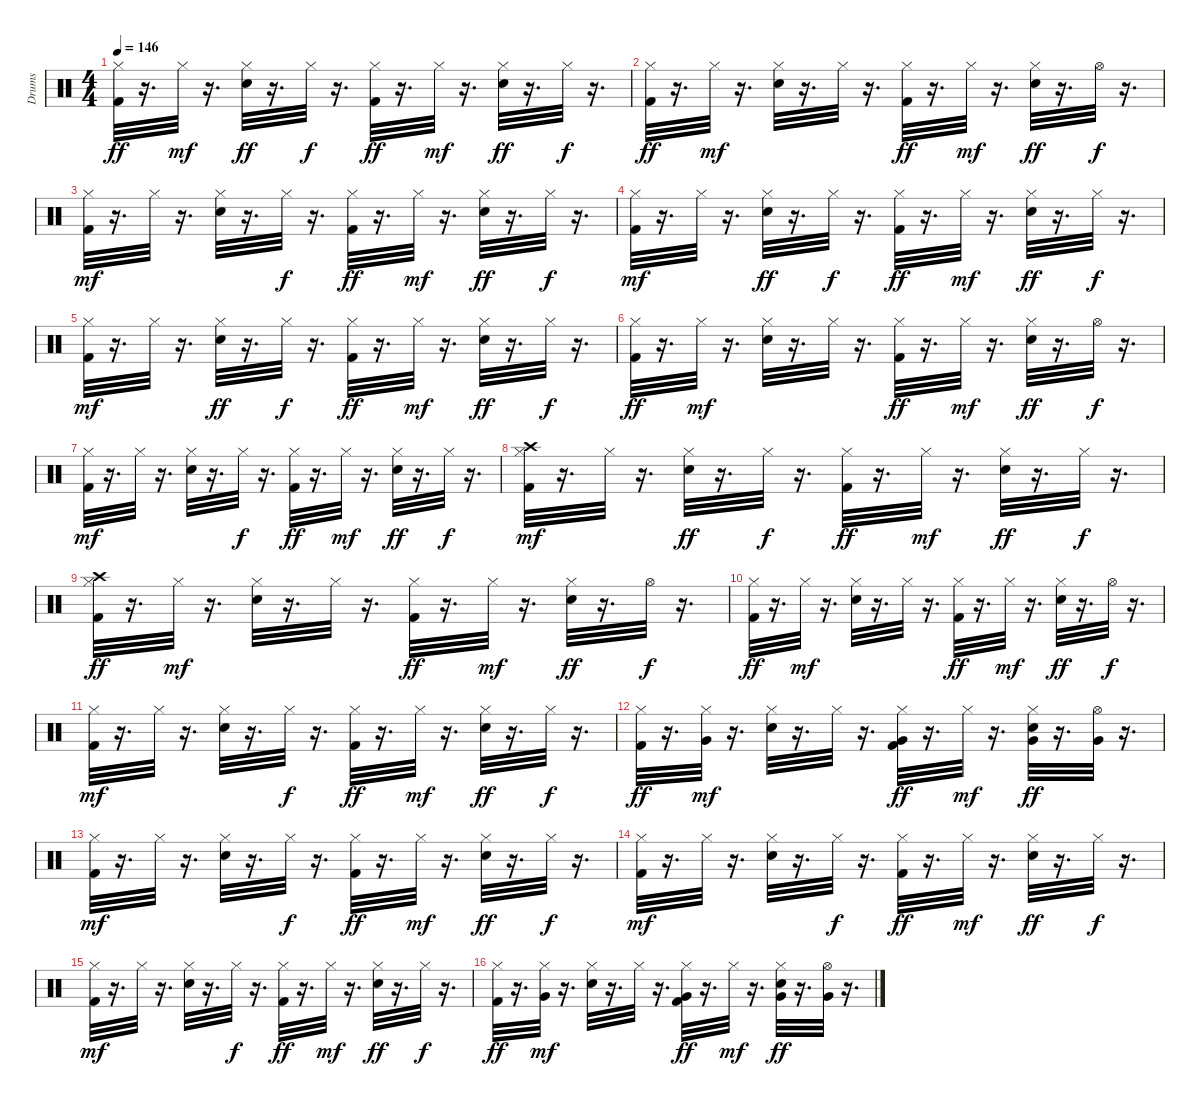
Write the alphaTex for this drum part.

\track ("Drums" "Drums") {instrument percussion}
\staff {score}
\articulation defaults
\ts (4 4)
\tempo 146
\clef neutral
\ks c
("Hi-Hat (closed)" "Kick (hit) 2").32{dy ff} r.16{d} "Hi-Hat (closed)".32{dy mf} r.16{d} ("Hi-Hat (closed)" "Snare (hit) 2").32{dy ff} r.16{d} "Hi-Hat (closed)".32{dy f} r.16{d} ("Kick (hit) 2" "Hi-Hat (closed)").32{dy ff} r.16{d} "Hi-Hat (closed)".32{dy mf} r.16{d} ("Snare (hit) 2" "Hi-Hat (closed)").32{dy ff} r.16{d} "Hi-Hat (closed)".32{dy f} r.16{d} |
("Kick (hit) 2" "Hi-Hat (closed)").32{dy ff} r.16{d} "Hi-Hat (closed)".32{dy mf} r.16{d} ("Snare (hit) 2" "Hi-Hat (closed)").32 r.16{d} "Hi-Hat (closed)".32 r.16{d} ("Kick (hit) 2" "Hi-Hat (closed)").32{dy ff} r.16{d} "Hi-Hat (closed)".32{dy mf} r.16{d} ("Hi-Hat (closed)" "Snare (hit) 2").32{dy ff} r.16{d} "Hi-Hat (open)".32{dy f} r.16{d} |
("Kick (hit) 2" "Hi-Hat (closed)").32{dy mf} r.16{d} "Hi-Hat (closed)".32 r.16{d} ("Snare (hit) 2" "Hi-Hat (closed)").32 r.16{d} "Hi-Hat (closed)".32{dy f} r.16{d} ("Kick (hit) 2" "Hi-Hat (closed)").32{dy ff} r.16{d} "Hi-Hat (closed)".32{dy mf} r.16{d} ("Snare (hit) 2" "Hi-Hat (closed)").32{dy ff} r.16{d} "Hi-Hat (closed)".32{dy f} r.16{d} |
("Kick (hit) 2" "Hi-Hat (closed)").32{dy mf} r.16{d} "Hi-Hat (closed)".32 r.16{d} ("Hi-Hat (closed)" "Snare (hit) 2").32{dy ff} r.16{d} "Hi-Hat (closed)".32{dy f} r.16{d} ("Kick (hit) 2" "Hi-Hat (closed)").32{dy ff} r.16{d} "Hi-Hat (closed)".32{dy mf} r.16{d} ("Snare (hit) 2" "Hi-Hat (closed)").32{dy ff} r.16{d} "Hi-Hat (closed)".32{dy f} r.16{d} |
("Kick (hit) 2" "Hi-Hat (closed)").32{dy mf} r.16{d} "Hi-Hat (closed)".32 r.16{d} ("Hi-Hat (closed)" "Snare (hit) 2").32{dy ff} r.16{d} "Hi-Hat (closed)".32{dy f} r.16{d} ("Kick (hit) 2" "Hi-Hat (closed)").32{dy ff} r.16{d} "Hi-Hat (closed)".32{dy mf} r.16{d} ("Snare (hit) 2" "Hi-Hat (closed)").32{dy ff} r.16{d} "Hi-Hat (closed)".32{dy f} r.16{d} |
("Kick (hit) 2" "Hi-Hat (closed)").32{dy ff} r.16{d} "Hi-Hat (closed)".32{dy mf} r.16{d} ("Snare (hit) 2" "Hi-Hat (closed)").32 r.16{d} "Hi-Hat (closed)".32 r.16{d} ("Kick (hit) 2" "Hi-Hat (closed)").32{dy ff} r.16{d} "Hi-Hat (closed)".32{dy mf} r.16{d} ("Snare (hit) 2" "Hi-Hat (closed)").32{dy ff} r.16{d} "Hi-Hat (open)".32{dy f} r.16{d} |
("Kick (hit) 2" "Hi-Hat (closed)").32{dy mf} r.16{d} "Hi-Hat (closed)".32 r.16{d} ("Snare (hit) 2" "Hi-Hat (closed)").32 r.16{d} "Hi-Hat (closed)".32{dy f} r.16{d} ("Kick (hit) 2" "Hi-Hat (closed)").32{dy ff} r.16{d} "Hi-Hat (closed)".32{dy mf} r.16{d} ("Snare (hit) 2" "Hi-Hat (closed)").32{dy ff} r.16{d} "Hi-Hat (closed)".32{dy f} r.16{d} |
("Kick (hit) 2" "Hi-Hat (closed)" "Crash high (hit)").32{dy mf} r.16{d} "Hi-Hat (closed)".32 r.16{d} ("Hi-Hat (closed)" "Snare (hit) 2").32{dy ff} r.16{d} "Hi-Hat (closed)".32{dy f} r.16{d} ("Hi-Hat (closed)" "Kick (hit) 2").32{dy ff} r.16{d} "Hi-Hat (closed)".32{dy mf} r.16{d} ("Hi-Hat (closed)" "Snare (hit) 2").32{dy ff} r.16{d} "Hi-Hat (closed)".32{dy f} r.16{d} |
("Hi-Hat (closed)" "Kick (hit) 2" "Crash high (hit)").32{dy ff} r.16{d} "Hi-Hat (closed)".32{dy mf} r.16{d} ("Snare (hit) 2" "Hi-Hat (closed)").32 r.16{d} "Hi-Hat (closed)".32 r.16{d} ("Hi-Hat (closed)" "Kick (hit) 2").32{dy ff} r.16{d} "Hi-Hat (closed)".32{dy mf} r.16{d} ("Hi-Hat (closed)" "Snare (hit) 2").32{dy ff} r.16{d} "Hi-Hat (open)".32{dy f} r.16{d} |
("Kick (hit) 2" "Hi-Hat (closed)").32{dy ff} r.16{d} "Hi-Hat (closed)".32{dy mf} r.16{d} ("Snare (hit) 2" "Hi-Hat (closed)").32 r.16{d} "Hi-Hat (closed)".32 r.16{d} ("Hi-Hat (closed)" "Kick (hit) 2").32{dy ff} r.16{d} "Hi-Hat (closed)".32{dy mf} r.16{d} ("Hi-Hat (closed)" "Snare (hit) 2").32{dy ff} r.16{d} "Hi-Hat (open)".32{dy f} r.16{d} |
("Kick (hit) 2" "Hi-Hat (closed)").32{dy mf} r.16{d} "Hi-Hat (closed)".32 r.16{d} ("Snare (hit) 2" "Hi-Hat (closed)").32 r.16{d} "Hi-Hat (closed)".32{dy f} r.16{d} ("Hi-Hat (closed)" "Kick (hit) 2").32{dy ff} r.16{d} "Hi-Hat (closed)".32{dy mf} r.16{d} ("Hi-Hat (closed)" "Snare (hit) 2").32{dy ff} r.16{d} "Hi-Hat (closed)".32{dy f} r.16{d} |
("Kick (hit) 2" "Hi-Hat (closed)").32{dy ff} r.16{d} ("Hi-Hat (closed)" "Very Low Tom (hit)").32{dy mf} r.16{d} ("Snare (hit) 2" "Hi-Hat (closed)").32 r.16{d} "Hi-Hat (closed)".32 r.16{d} ("Kick (hit) 2" "Hi-Hat (closed)" "Very Low Tom (hit)").32{dy ff} r.16{d} "Hi-Hat (closed)".32{dy mf} r.16{d} ("Hi-Hat (closed)" "Snare (hit) 2" "Very Low Tom (hit)").32{dy ff} r.16{d} ("Hi-Hat (open)" "Very Low Tom (hit)").32 r.16{d} |
("Kick (hit) 2" "Hi-Hat (closed)").32{dy mf} r.16{d} "Hi-Hat (closed)".32 r.16{d} ("Snare (hit) 2" "Hi-Hat (closed)").32 r.16{d} "Hi-Hat (closed)".32{dy f} r.16{d} ("Kick (hit) 2" "Hi-Hat (closed)").32{dy ff} r.16{d} "Hi-Hat (closed)".32{dy mf} r.16{d} ("Snare (hit) 2" "Hi-Hat (closed)").32{dy ff} r.16{d} "Hi-Hat (closed)".32{dy f} r.16{d} |
("Kick (hit) 2" "Hi-Hat (closed)").32{dy mf} r.16{d} "Hi-Hat (closed)".32 r.16{d} ("Snare (hit) 2" "Hi-Hat (closed)").32 r.16{d} "Hi-Hat (closed)".32{dy f} r.16{d} ("Kick (hit) 2" "Hi-Hat (closed)").32{dy ff} r.16{d} "Hi-Hat (closed)".32{dy mf} r.16{d} ("Hi-Hat (closed)" "Snare (hit) 2").32{dy ff} r.16{d} "Hi-Hat (closed)".32{dy f} r.16{d} |
("Kick (hit) 2" "Hi-Hat (closed)").32{dy mf} r.16{d} "Hi-Hat (closed)".32 r.16{d} ("Snare (hit) 2" "Hi-Hat (closed)").32 r.16{d} "Hi-Hat (closed)".32{dy f} r.16{d} ("Kick (hit) 2" "Hi-Hat (closed)").32{dy ff} r.16{d} "Hi-Hat (closed)".32{dy mf} r.16{d} ("Snare (hit) 2" "Hi-Hat (closed)").32{dy ff} r.16{d} "Hi-Hat (closed)".32{dy f} r.16{d} |
("Kick (hit) 2" "Hi-Hat (closed)").32{dy ff} r.16{d} ("Hi-Hat (closed)" "Very Low Tom (hit)").32{dy mf} r.16{d} ("Snare (hit) 2" "Hi-Hat (closed)").32 r.16{d} "Hi-Hat (closed)".32 r.16{d} ("Hi-Hat (closed)" "Kick (hit) 2" "Very Low Tom (hit)").32{dy ff} r.16{d} "Hi-Hat (closed)".32{dy mf} r.16{d} ("Hi-Hat (closed)" "Snare (hit) 2" "Very Low Tom (hit)").32{dy ff} r.16{d} ("Hi-Hat (open)" "Very Low Tom (hit)").32 r.16{d}
